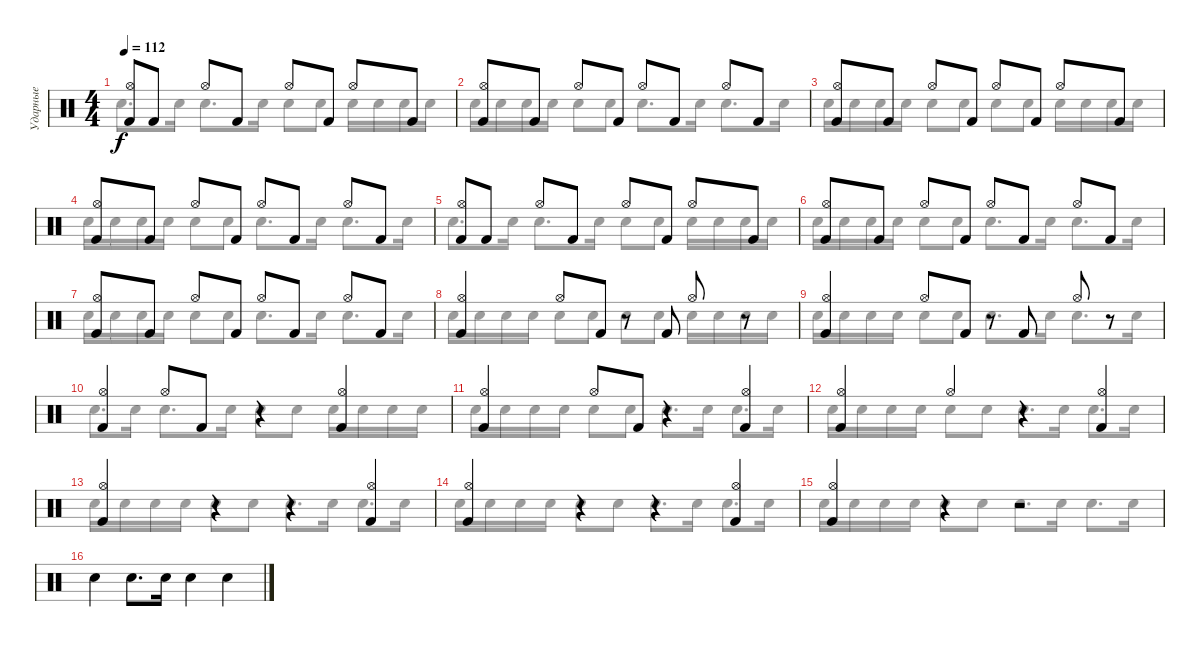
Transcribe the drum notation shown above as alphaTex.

\track ("Ударные" "Ударные") {instrument percussion}
\staff {score}
\articulation defaults
\voice
\ts (4 4)
\tempo 112
\clef neutral
\ks c
("Hi-Hat (open)" "Kick (hit) 2").8{dy f} "Kick (hit) 2".8 "Hi-Hat (open)".8 "Kick (hit) 2".8 "Hi-Hat (open)".8 "Kick (hit) 2".8 "Hi-Hat (open)".8 "Kick (hit) 2".8 |
("Hi-Hat (open)" "Kick (hit) 2").8 "Kick (hit) 2".8 "Hi-Hat (open)".8 "Kick (hit) 2".8 "Hi-Hat (open)".8 "Kick (hit) 2".8 "Hi-Hat (open)".8 "Kick (hit) 2".8 |
("Hi-Hat (open)" "Kick (hit) 2").8 "Kick (hit) 2".8 "Hi-Hat (open)".8 "Kick (hit) 2".8 "Hi-Hat (open)".8 "Kick (hit) 2".8 "Hi-Hat (open)".8 "Kick (hit) 2".8 |
("Hi-Hat (open)" "Kick (hit) 2").8 "Kick (hit) 2".8 "Hi-Hat (open)".8 "Kick (hit) 2".8 "Hi-Hat (open)".8 "Kick (hit) 2".8 "Hi-Hat (open)".8 "Kick (hit) 2".8 |
("Hi-Hat (open)" "Kick (hit) 2").8 "Kick (hit) 2".8 "Hi-Hat (open)".8 "Kick (hit) 2".8 "Hi-Hat (open)".8 "Kick (hit) 2".8 "Hi-Hat (open)".8 "Kick (hit) 2".8 |
("Hi-Hat (open)" "Kick (hit) 2").8 "Kick (hit) 2".8 "Hi-Hat (open)".8 "Kick (hit) 2".8 "Hi-Hat (open)".8 "Kick (hit) 2".8 "Hi-Hat (open)".8 "Kick (hit) 2".8 |
("Hi-Hat (open)" "Kick (hit) 2").8 "Kick (hit) 2".8 "Hi-Hat (open)".8 "Kick (hit) 2".8 "Hi-Hat (open)".8 "Kick (hit) 2".8 "Hi-Hat (open)".8 "Kick (hit) 2".8 |
("Hi-Hat (open)" "Kick (hit) 2").4 "Hi-Hat (open)".8 "Kick (hit) 2".8 r.8 "Kick (hit) 2".8 "Hi-Hat (open)".8 r.8 |
("Hi-Hat (open)" "Kick (hit) 2").4 "Hi-Hat (open)".8 "Kick (hit) 2".8 r.8 "Kick (hit) 2".8 "Hi-Hat (open)".8 r.8 |
("Hi-Hat (open)" "Kick (hit) 2").4 "Hi-Hat (open)".8 "Kick (hit) 2".8 r.4 ("Hi-Hat (open)" "Kick (hit) 2").4 |
("Hi-Hat (open)" "Kick (hit) 2").4 "Hi-Hat (open)".8 "Kick (hit) 2".8 r.4 ("Hi-Hat (open)" "Kick (hit) 2").4 |
("Hi-Hat (open)" "Kick (hit) 2").4 "Hi-Hat (open)".4 r.4 ("Hi-Hat (open)" "Kick (hit) 2").4 |
("Hi-Hat (open)" "Kick (hit) 2").4 r.4 r.4 ("Hi-Hat (open)" "Kick (hit) 2").4 |
("Hi-Hat (open)" "Kick (hit) 2").4 r.4 r.4 ("Hi-Hat (open)" "Kick (hit) 2").4 |
("Hi-Hat (open)" "Kick (hit) 2").4 r.4 r.2 |
"Snare (hit) 2".4 "Snare (hit) 2".8{d} "Snare (hit) 2".16 "Snare (hit) 2".4 "Snare (hit) 2".4
\voice
\clef neutral
\ottava regular
\simile none
\ks c "Snare (hit) 2".8{d dy f} "Snare (hit) 2".16 "Snare (hit) 2".8{d} "Snare (hit) 2".16 "Snare (hit) 2".8 "Snare (hit) 2".8 "Snare (hit) 2".16 "Snare (hit) 2".16 "Snare (hit) 2".16 "Snare (hit) 2".16
|
"Snare (hit) 2".16 "Snare (hit) 2".16 "Snare (hit) 2".16 "Snare (hit) 2".16 "Snare (hit) 2".8 "Snare (hit) 2".8 "Snare (hit) 2".8{d} "Snare (hit) 2".16 "Snare (hit) 2".8{d} "Snare (hit) 2".16 |
"Snare (hit) 2".16 "Snare (hit) 2".16 "Snare (hit) 2".16 "Snare (hit) 2".16 "Snare (hit) 2".8 "Snare (hit) 2".8 "Snare (hit) 2".8 "Snare (hit) 2".8 "Snare (hit) 2".16 "Snare (hit) 2".16 "Snare (hit) 2".16 "Snare (hit) 2".16 |
"Snare (hit) 2".16 "Snare (hit) 2".16 "Snare (hit) 2".16 "Snare (hit) 2".16 "Snare (hit) 2".8 "Snare (hit) 2".8 "Snare (hit) 2".8{d} "Snare (hit) 2".16 "Snare (hit) 2".8{d} "Snare (hit) 2".16 |
"Snare (hit) 2".8{d} "Snare (hit) 2".16 "Snare (hit) 2".8{d} "Snare (hit) 2".16 "Snare (hit) 2".8 "Snare (hit) 2".8 "Snare (hit) 2".16 "Snare (hit) 2".16 "Snare (hit) 2".16 "Snare (hit) 2".16 |
"Snare (hit) 2".16 "Snare (hit) 2".16 "Snare (hit) 2".16 "Snare (hit) 2".16 "Snare (hit) 2".8 "Snare (hit) 2".8 "Snare (hit) 2".8{d} "Snare (hit) 2".16 "Snare (hit) 2".8{d} "Snare (hit) 2".16 |
"Snare (hit) 2".16 "Snare (hit) 2".16 "Snare (hit) 2".16 "Snare (hit) 2".16 "Snare (hit) 2".8 "Snare (hit) 2".8 "Snare (hit) 2".8{d} "Snare (hit) 2".16 "Snare (hit) 2".8{d} "Snare (hit) 2".16 |
"Snare (hit) 2".16 "Snare (hit) 2".16 "Snare (hit) 2".16 "Snare (hit) 2".16 "Snare (hit) 2".8 "Snare (hit) 2".8 "Snare (hit) 2".8 "Snare (hit) 2".8 "Snare (hit) 2".16 "Snare (hit) 2".16 "Snare (hit) 2".16 "Snare (hit) 2".16 |
"Snare (hit) 2".16 "Snare (hit) 2".16 "Snare (hit) 2".16 "Snare (hit) 2".16 "Snare (hit) 2".8 "Snare (hit) 2".8 "Snare (hit) 2".8{d} "Snare (hit) 2".16 "Snare (hit) 2".8{d} "Snare (hit) 2".16 |
"Snare (hit) 2".8{d} "Snare (hit) 2".16 "Snare (hit) 2".8{d} "Snare (hit) 2".16 "Snare (hit) 2".8 "Snare (hit) 2".8 "Snare (hit) 2".16 "Snare (hit) 2".16 "Snare (hit) 2".16 "Snare (hit) 2".16 |
"Snare (hit) 2".16 "Snare (hit) 2".16 "Snare (hit) 2".16 "Snare (hit) 2".16 "Snare (hit) 2".8 "Snare (hit) 2".8 "Snare (hit) 2".8{d} "Snare (hit) 2".16 "Snare (hit) 2".8{d} "Snare (hit) 2".16 |
"Snare (hit) 2".16 "Snare (hit) 2".16 "Snare (hit) 2".16 "Snare (hit) 2".16 "Snare (hit) 2".8 "Snare (hit) 2".8 "Snare (hit) 2".8{d} "Snare (hit) 2".16 "Snare (hit) 2".8{d} "Snare (hit) 2".16 |
"Snare (hit) 2".16 "Snare (hit) 2".16 "Snare (hit) 2".16 "Snare (hit) 2".16 "Snare (hit) 2".8 "Snare (hit) 2".8 "Snare (hit) 2".8{d} "Snare (hit) 2".16 "Snare (hit) 2".8{d} "Snare (hit) 2".16 |
"Snare (hit) 2".16 "Snare (hit) 2".16 "Snare (hit) 2".16 "Snare (hit) 2".16 "Snare (hit) 2".8 "Snare (hit) 2".8 "Snare (hit) 2".8{d} "Snare (hit) 2".16 "Snare (hit) 2".8{d} "Snare (hit) 2".16 |
"Snare (hit) 2".16 "Snare (hit) 2".16 "Snare (hit) 2".16 "Snare (hit) 2".16 "Snare (hit) 2".8 "Snare (hit) 2".8 "Snare (hit) 2".8{d} "Snare (hit) 2".16 "Snare (hit) 2".8{d} "Snare (hit) 2".16 |
